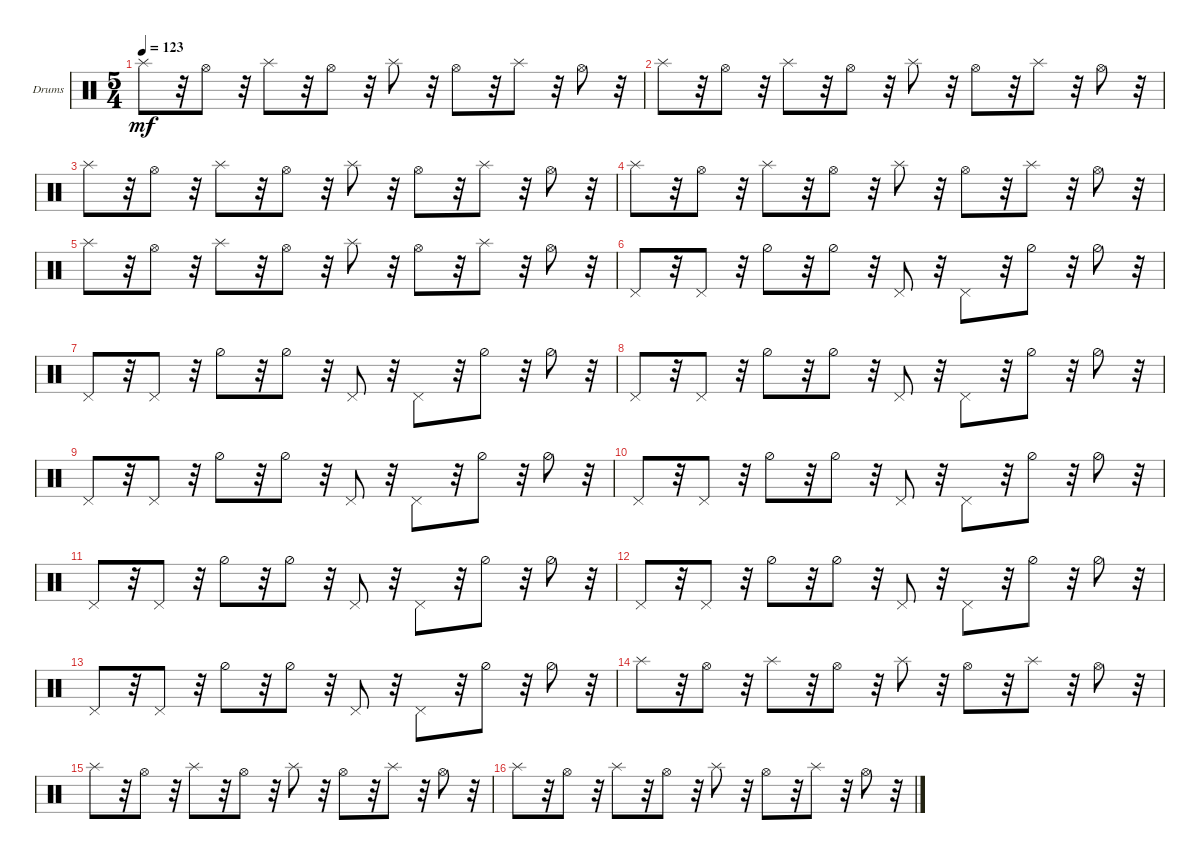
\defaultSystemsLayout 4
\bracketExtendMode groupsimilarinstruments
\firstSystemTrackNameOrientation horizontal
\otherSystemsTrackNameOrientation horizontal
\track ("Drumkit" "Drums") {instrument percussion}
\staff {score}
\articulation defaults
\ts (5 4)
\tempo 123
\clef neutral
\ks c "Splash (hit)".8{dy mf}
r.32 "Hi-Hat (open)".8 r.32 "Splash (hit)".8 r.32 "Hi-Hat (open)".8 r.32 "Splash (hit)".8 r.32 "Hi-Hat (open)".8 r.32 "Splash (hit)".8 r.32 "Hi-Hat (open)".8 r.32 |
"Splash (hit)".8 r.32 "Hi-Hat (open)".8 r.32 "Splash (hit)".8 r.32 "Hi-Hat (open)".8 r.32 "Splash (hit)".8 r.32 "Hi-Hat (open)".8 r.32 "Splash (hit)".8 r.32 "Hi-Hat (open)".8 r.32 |
"Splash (hit)".8 r.32 "Hi-Hat (open)".8 r.32 "Splash (hit)".8 r.32 "Hi-Hat (open)".8 r.32 "Splash (hit)".8 r.32 "Hi-Hat (open)".8 r.32 "Splash (hit)".8 r.32 "Hi-Hat (open)".8 r.32 |
"Splash (hit)".8 r.32 "Hi-Hat (open)".8 r.32 "Splash (hit)".8 r.32 "Hi-Hat (open)".8 r.32 "Splash (hit)".8 r.32 "Hi-Hat (open)".8 r.32 "Splash (hit)".8 r.32 "Hi-Hat (open)".8 r.32 |
"Splash (hit)".8 r.32 "Hi-Hat (open)".8 r.32 "Splash (hit)".8 r.32 "Hi-Hat (open)".8 r.32 "Splash (hit)".8 r.32 "Hi-Hat (open)".8 r.32 "Splash (hit)".8 r.32 "Hi-Hat (open)".8 r.32 |
"Pedal Hi-Hat (hit)".8 r.32 "Pedal Hi-Hat (hit)".8 r.32 "Hi-Hat (half)".8 r.32 "Hi-Hat (half)".8 r.32 "Pedal Hi-Hat (hit)".8 r.32 "Pedal Hi-Hat (hit)".8 r.32 "Hi-Hat (half)".8 r.32 "Hi-Hat (half)".8 r.32 |
"Pedal Hi-Hat (hit)".8 r.32 "Pedal Hi-Hat (hit)".8 r.32 "Hi-Hat (half)".8 r.32 "Hi-Hat (half)".8 r.32 "Pedal Hi-Hat (hit)".8 r.32 "Pedal Hi-Hat (hit)".8 r.32 "Hi-Hat (half)".8 r.32 "Hi-Hat (half)".8 r.32 |
"Pedal Hi-Hat (hit)".8 r.32 "Pedal Hi-Hat (hit)".8 r.32 "Hi-Hat (half)".8 r.32 "Hi-Hat (half)".8 r.32 "Pedal Hi-Hat (hit)".8 r.32 "Pedal Hi-Hat (hit)".8 r.32 "Hi-Hat (half)".8 r.32 "Hi-Hat (half)".8 r.32 |
"Pedal Hi-Hat (hit)".8 r.32 "Pedal Hi-Hat (hit)".8 r.32 "Hi-Hat (half)".8 r.32 "Hi-Hat (half)".8 r.32 "Pedal Hi-Hat (hit)".8 r.32 "Pedal Hi-Hat (hit)".8 r.32 "Hi-Hat (half)".8 r.32 "Hi-Hat (half)".8 r.32 |
"Pedal Hi-Hat (hit)".8 r.32 "Pedal Hi-Hat (hit)".8 r.32 "Hi-Hat (half)".8 r.32 "Hi-Hat (half)".8 r.32 "Pedal Hi-Hat (hit)".8 r.32 "Pedal Hi-Hat (hit)".8 r.32 "Hi-Hat (half)".8 r.32 "Hi-Hat (half)".8 r.32 |
"Pedal Hi-Hat (hit)".8 r.32 "Pedal Hi-Hat (hit)".8 r.32 "Hi-Hat (half)".8 r.32 "Hi-Hat (half)".8 r.32 "Pedal Hi-Hat (hit)".8 r.32 "Pedal Hi-Hat (hit)".8 r.32 "Hi-Hat (half)".8 r.32 "Hi-Hat (half)".8 r.32 |
"Pedal Hi-Hat (hit)".8 r.32 "Pedal Hi-Hat (hit)".8 r.32 "Hi-Hat (half)".8 r.32 "Hi-Hat (half)".8 r.32 "Pedal Hi-Hat (hit)".8 r.32 "Pedal Hi-Hat (hit)".8 r.32 "Hi-Hat (half)".8 r.32 "Hi-Hat (half)".8 r.32 |
"Pedal Hi-Hat (hit)".8 r.32 "Pedal Hi-Hat (hit)".8 r.32 "Hi-Hat (half)".8 r.32 "Hi-Hat (half)".8 r.32 "Pedal Hi-Hat (hit)".8 r.32 "Pedal Hi-Hat (hit)".8 r.32 "Hi-Hat (half)".8 r.32 "Hi-Hat (half)".8 r.32 |
"Splash (hit)".8 r.32 "Hi-Hat (open)".8 r.32 "Splash (hit)".8 r.32 "Hi-Hat (open)".8 r.32 "Splash (hit)".8 r.32 "Hi-Hat (open)".8 r.32 "Splash (hit)".8 r.32 "Hi-Hat (open)".8 r.32 |
"Splash (hit)".8 r.32 "Hi-Hat (open)".8 r.32 "Splash (hit)".8 r.32 "Hi-Hat (open)".8 r.32 "Splash (hit)".8 r.32 "Hi-Hat (open)".8 r.32 "Splash (hit)".8 r.32 "Hi-Hat (open)".8 r.32 |
"Splash (hit)".8 r.32 "Hi-Hat (open)".8 r.32 "Splash (hit)".8 r.32 "Hi-Hat (open)".8 r.32 "Splash (hit)".8 r.32 "Hi-Hat (open)".8 r.32 "Splash (hit)".8 r.32 "Hi-Hat (open)".8 r.32
